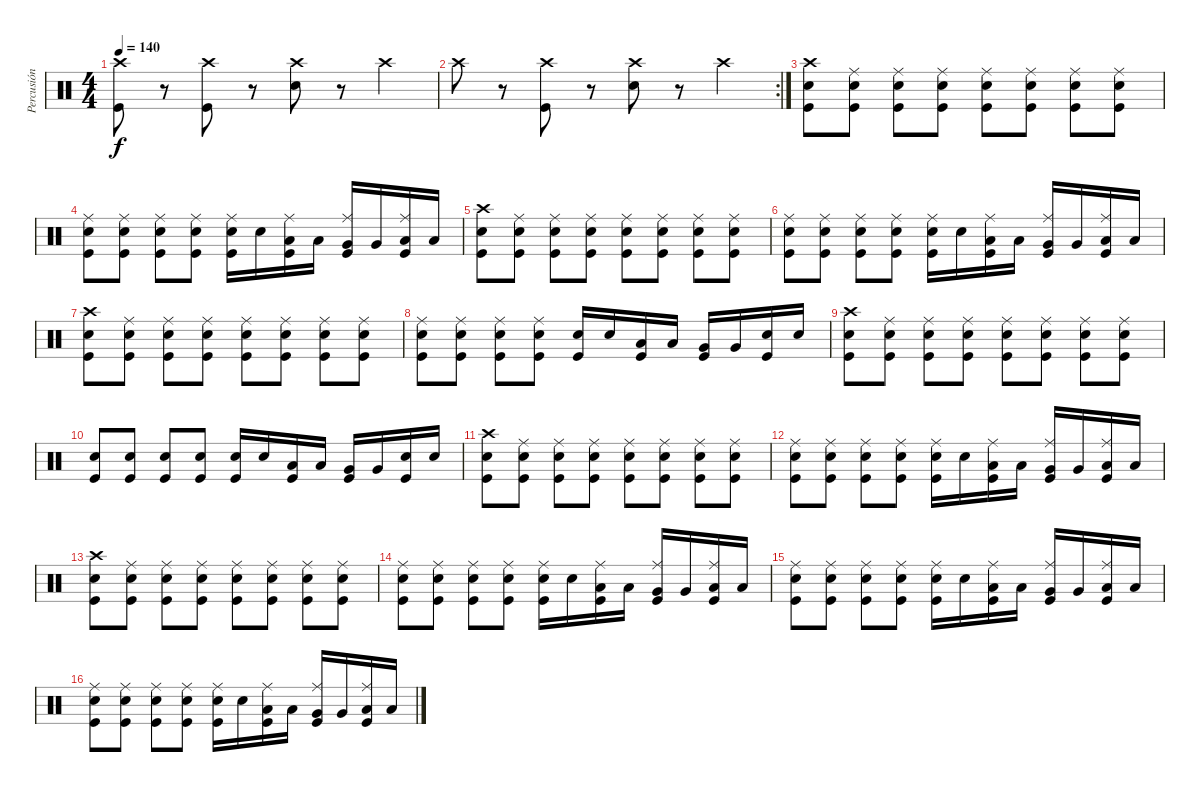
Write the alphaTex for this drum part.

\track ("Percusión" "Percusión") {instrument percussion}
\staff {score}
\articulation defaults
\ts (4 4)
\tempo 140
\clef neutral
\ks c
("Crash high (hit)" "Kick (hit)").8{dy f} r.8 ("Crash high (hit)" "Kick (hit)").8 r.8 ("Crash high (hit)" "Snare (hit) 2").8 r.8 "Crash high (hit)".4 |
\rc 2 "Crash high (hit)".8
r.8 ("Crash high (hit)" "Kick (hit)").8 r.8 ("Crash high (hit)" "Snare (hit) 2").8 r.8 "Crash high (hit)".4 |
("Kick (hit)" "Crash high (hit)" "Snare (hit) 2").8 ("Kick (hit)" "Ride (middle)" "Snare (hit) 2").8 ("Kick (hit)" "Ride (middle)" "Snare (hit) 2").8 ("Kick (hit)" "Ride (middle)" "Snare (hit) 2").8 ("Kick (hit)" "Ride (middle)" "Snare (hit) 2").8 ("Kick (hit)" "Ride (middle)" "Snare (hit) 2").8 ("Kick (hit)" "Ride (middle)" "Snare (hit) 2").8 ("Kick (hit)" "Ride (middle)" "Snare (hit) 2").8 |
("Kick (hit)" "Ride (middle)" "Snare (hit) 2").8 ("Kick (hit)" "Ride (middle)" "Snare (hit) 2").8 ("Kick (hit)" "Ride (middle)" "Snare (hit) 2").8 ("Kick (hit)" "Ride (middle)" "Snare (hit) 2").8 ("Snare (hit) 2" "Ride (middle)" "Kick (hit)").16 "Snare (hit) 2".16 ("Low Floor Tom (hit)" "Ride (middle)" "Kick (hit)").16 "Low Floor Tom (hit)".16 ("Very Low Tom (hit)" "Ride (middle)" "Kick (hit)").16 "Very Low Tom (hit)".16 ("Low Tom (hit)" "Ride (middle)" "Kick (hit)").16 "Low Tom (hit)".16 |
("Kick (hit)" "Crash high (hit)" "Snare (hit) 2").8 ("Kick (hit)" "Ride (middle)" "Snare (hit) 2").8 ("Kick (hit)" "Ride (middle)" "Snare (hit) 2").8 ("Kick (hit)" "Ride (middle)" "Snare (hit) 2").8 ("Kick (hit)" "Ride (middle)" "Snare (hit) 2").8 ("Kick (hit)" "Ride (middle)" "Snare (hit) 2").8 ("Kick (hit)" "Ride (middle)" "Snare (hit) 2").8 ("Kick (hit)" "Ride (middle)" "Snare (hit) 2").8 |
("Kick (hit)" "Ride (middle)" "Snare (hit) 2").8 ("Kick (hit)" "Ride (middle)" "Snare (hit) 2").8 ("Kick (hit)" "Ride (middle)" "Snare (hit) 2").8 ("Kick (hit)" "Ride (middle)" "Snare (hit) 2").8 ("Snare (hit) 2" "Ride (middle)" "Kick (hit)").16 "Snare (hit) 2".16 ("Low Floor Tom (hit)" "Ride (middle)" "Kick (hit)").16 "Low Floor Tom (hit)".16 ("Very Low Tom (hit)" "Ride (middle)" "Kick (hit)").16 "Very Low Tom (hit)".16 ("Low Tom (hit)" "Ride (middle)" "Kick (hit)").16 "Low Tom (hit)".16 |
("Kick (hit)" "Crash high (hit)" "Snare (hit) 2").8 ("Kick (hit)" "Ride (middle)" "Snare (hit) 2").8 ("Kick (hit)" "Ride (middle)" "Snare (hit) 2").8 ("Kick (hit)" "Ride (middle)" "Snare (hit) 2").8 ("Kick (hit)" "Ride (middle)" "Snare (hit) 2").8 ("Kick (hit)" "Ride (middle)" "Snare (hit) 2").8 ("Kick (hit)" "Ride (middle)" "Snare (hit) 2").8 ("Kick (hit)" "Ride (middle)" "Snare (hit) 2").8 |
("Kick (hit)" "Ride (middle)" "Snare (hit) 2").8 ("Kick (hit)" "Ride (middle)" "Snare (hit) 2").8 ("Kick (hit)" "Ride (middle)" "Snare (hit) 2").8 ("Kick (hit)" "Ride (middle)" "Snare (hit) 2").8 ("Snare (hit) 2" "Kick (hit)").16 "Snare (hit) 2".16 ("Low Floor Tom (hit)" "Kick (hit)").16 "Low Floor Tom (hit)".16 ("Very Low Tom (hit)" "Kick (hit)").16 "Very Low Tom (hit)".16 ("Snare (hit) 2" "Kick (hit)").16 "Snare (hit) 2".16 |
("Kick (hit)" "Crash high (hit)" "Snare (hit) 2").8 ("Kick (hit)" "Ride (middle)" "Snare (hit) 2").8 ("Kick (hit)" "Ride (middle)" "Snare (hit) 2").8 ("Kick (hit)" "Ride (middle)" "Snare (hit) 2").8 ("Kick (hit)" "Ride (middle)" "Snare (hit) 2").8 ("Kick (hit)" "Ride (middle)" "Snare (hit) 2").8 ("Kick (hit)" "Ride (middle)" "Snare (hit) 2").8 ("Kick (hit)" "Ride (middle)" "Snare (hit) 2").8 |
("Kick (hit)" "Snare (hit) 2").8 ("Kick (hit)" "Snare (hit) 2").8 ("Kick (hit)" "Snare (hit) 2").8 ("Kick (hit)" "Snare (hit) 2").8 ("Snare (hit) 2" "Kick (hit)").16 "Snare (hit) 2".16 ("Low Floor Tom (hit)" "Kick (hit)").16 "Low Floor Tom (hit)".16 ("Very Low Tom (hit)" "Kick (hit)").16 "Very Low Tom (hit)".16 ("Snare (hit) 2" "Kick (hit)").16 "Snare (hit) 2".16 |
("Kick (hit)" "Crash high (hit)" "Snare (hit) 2").8 ("Kick (hit)" "Ride (middle)" "Snare (hit) 2").8 ("Kick (hit)" "Ride (middle)" "Snare (hit) 2").8 ("Kick (hit)" "Ride (middle)" "Snare (hit) 2").8 ("Kick (hit)" "Ride (middle)" "Snare (hit) 2").8 ("Kick (hit)" "Ride (middle)" "Snare (hit) 2").8 ("Kick (hit)" "Ride (middle)" "Snare (hit) 2").8 ("Kick (hit)" "Ride (middle)" "Snare (hit) 2").8 |
("Kick (hit)" "Ride (middle)" "Snare (hit) 2").8 ("Kick (hit)" "Ride (middle)" "Snare (hit) 2").8 ("Kick (hit)" "Ride (middle)" "Snare (hit) 2").8 ("Kick (hit)" "Ride (middle)" "Snare (hit) 2").8 ("Snare (hit) 2" "Ride (middle)" "Kick (hit)").16 "Snare (hit) 2".16 ("Low Floor Tom (hit)" "Ride (middle)" "Kick (hit)").16 "Low Floor Tom (hit)".16 ("Very Low Tom (hit)" "Ride (middle)" "Kick (hit)").16 "Very Low Tom (hit)".16 ("Low Tom (hit)" "Ride (middle)" "Kick (hit)").16 "Low Tom (hit)".16 |
("Kick (hit)" "Crash high (hit)" "Snare (hit) 2").8 ("Kick (hit)" "Ride (middle)" "Snare (hit) 2").8 ("Kick (hit)" "Ride (middle)" "Snare (hit) 2").8 ("Kick (hit)" "Ride (middle)" "Snare (hit) 2").8 ("Kick (hit)" "Ride (middle)" "Snare (hit) 2").8 ("Kick (hit)" "Ride (middle)" "Snare (hit) 2").8 ("Kick (hit)" "Ride (middle)" "Snare (hit) 2").8 ("Kick (hit)" "Ride (middle)" "Snare (hit) 2").8 |
("Kick (hit)" "Ride (middle)" "Snare (hit) 2").8 ("Kick (hit)" "Ride (middle)" "Snare (hit) 2").8 ("Kick (hit)" "Ride (middle)" "Snare (hit) 2").8 ("Kick (hit)" "Ride (middle)" "Snare (hit) 2").8 ("Snare (hit) 2" "Ride (middle)" "Kick (hit)").16 "Snare (hit) 2".16 ("Low Floor Tom (hit)" "Ride (middle)" "Kick (hit)").16 "Low Floor Tom (hit)".16 ("Very Low Tom (hit)" "Ride (middle)" "Kick (hit)").16 "Very Low Tom (hit)".16 ("Low Tom (hit)" "Ride (middle)" "Kick (hit)").16 "Low Tom (hit)".16 |
("Kick (hit)" "Ride (middle)" "Snare (hit) 2").8 ("Kick (hit)" "Ride (middle)" "Snare (hit) 2").8 ("Kick (hit)" "Ride (middle)" "Snare (hit) 2").8 ("Kick (hit)" "Ride (middle)" "Snare (hit) 2").8 ("Snare (hit) 2" "Ride (middle)" "Kick (hit)").16 "Snare (hit) 2".16 ("Low Floor Tom (hit)" "Ride (middle)" "Kick (hit)").16 "Low Floor Tom (hit)".16 ("Very Low Tom (hit)" "Ride (middle)" "Kick (hit)").16 "Very Low Tom (hit)".16 ("Low Tom (hit)" "Ride (middle)" "Kick (hit)").16 "Low Tom (hit)".16 |
("Kick (hit)" "Ride (middle)" "Snare (hit) 2").8 ("Kick (hit)" "Ride (middle)" "Snare (hit) 2").8 ("Kick (hit)" "Ride (middle)" "Snare (hit) 2").8 ("Kick (hit)" "Ride (middle)" "Snare (hit) 2").8 ("Snare (hit) 2" "Ride (middle)" "Kick (hit)").16 "Snare (hit) 2".16 ("Low Floor Tom (hit)" "Ride (middle)" "Kick (hit)").16 "Low Floor Tom (hit)".16 ("Very Low Tom (hit)" "Ride (middle)" "Kick (hit)").16 "Very Low Tom (hit)".16 ("Low Tom (hit)" "Ride (middle)" "Kick (hit)").16 "Low Tom (hit)".16
